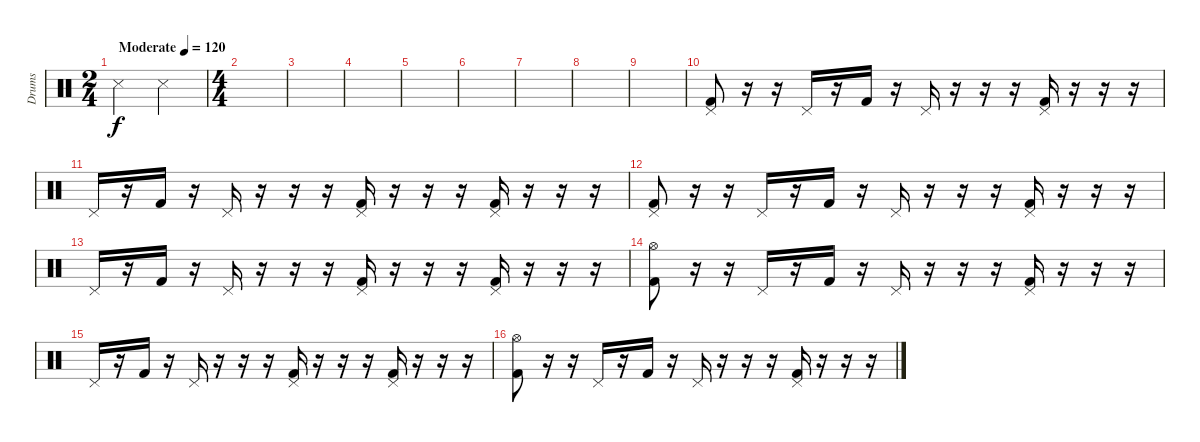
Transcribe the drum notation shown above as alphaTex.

\track ("Drums" "Drums") {instrument percussion}
\staff
\articulation defaults
\ts (2 4)
\tempo (120 "Moderate")
\clef neutral
\ks c "Snare (side stick) 3".4{dy f} "Snare (side stick) 3".4
|
\ts (4 4)
|
|
|
|
|
|
|
|
("Pedal Hi-Hat (hit)" "Kick (hit) 2").8 r.16 r.16 "Pedal Hi-Hat (hit)".16 r.16 "Kick (hit) 2".16 r.16 "Pedal Hi-Hat (hit)".16 r.16 r.16 r.16 ("Pedal Hi-Hat (hit)" "Kick (hit) 2").16 r.16 r.16 r.16 |
"Pedal Hi-Hat (hit)".16 r.16 "Kick (hit) 2".16 r.16 "Pedal Hi-Hat (hit)".16 r.16 r.16 r.16 ("Pedal Hi-Hat (hit)" "Kick (hit) 2").16 r.16 r.16 r.16 ("Pedal Hi-Hat (hit)" "Kick (hit) 2").16 r.16 r.16 r.16 |
("Pedal Hi-Hat (hit)" "Kick (hit) 2").8 r.16 r.16 "Pedal Hi-Hat (hit)".16 r.16 "Kick (hit) 2".16 r.16 "Pedal Hi-Hat (hit)".16 r.16 r.16 r.16 ("Pedal Hi-Hat (hit)" "Kick (hit) 2").16 r.16 r.16 r.16 |
"Pedal Hi-Hat (hit)".16 r.16 "Kick (hit) 2".16 r.16 "Pedal Hi-Hat (hit)".16 r.16 r.16 r.16 ("Pedal Hi-Hat (hit)" "Kick (hit) 2").16 r.16 r.16 r.16 ("Pedal Hi-Hat (hit)" "Kick (hit) 2").16 r.16 r.16 r.16 |
("Hi-Hat (open)" "Kick (hit) 2").8 r.16 r.16 "Pedal Hi-Hat (hit)".16 r.16 "Kick (hit) 2".16 r.16 "Pedal Hi-Hat (hit)".16 r.16 r.16 r.16 ("Pedal Hi-Hat (hit)" "Kick (hit) 2").16 r.16 r.16 r.16 |
"Pedal Hi-Hat (hit)".16 r.16 "Kick (hit) 2".16 r.16 "Pedal Hi-Hat (hit)".16 r.16 r.16 r.16 ("Pedal Hi-Hat (hit)" "Kick (hit) 2").16 r.16 r.16 r.16 ("Pedal Hi-Hat (hit)" "Kick (hit) 2").16 r.16 r.16 r.16 |
("Hi-Hat (open)" "Kick (hit) 2").8 r.16 r.16 "Pedal Hi-Hat (hit)".16 r.16 "Kick (hit) 2".16 r.16 "Pedal Hi-Hat (hit)".16 r.16 r.16 r.16 ("Pedal Hi-Hat (hit)" "Kick (hit) 2").16 r.16 r.16 r.16
